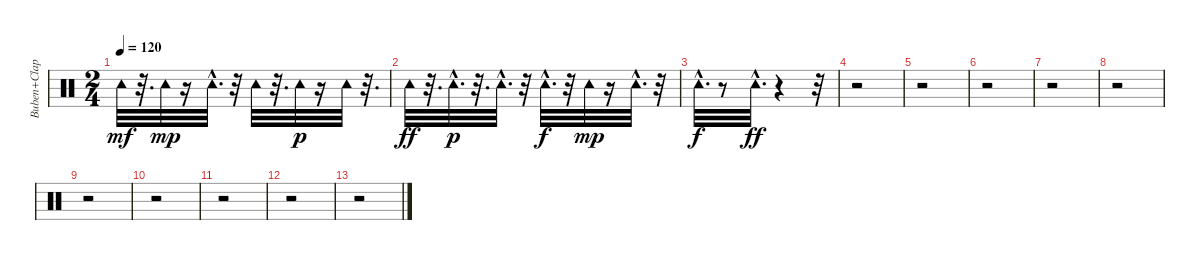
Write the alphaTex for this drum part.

\track ("Buben+Clap" "Buben+Clap") {instrument percussion}
\staff {score}
\articulation defaults
\ts (2 4)
\tempo 120
\clef neutral
\ks c "Tambourine (hit)".32{dy mf}
r.32{d} "Tambourine (hit)".32{dy mp} r.16 "Tambourine (hit)"{hac}.32{d} r.32 "Tambourine (hit)".32 r.32{d} "Tambourine (hit)".32{dy p} r.16 "Tambourine (hit)".32 r.32{d} |
"Tambourine (hit)".32{dy ff} r.32{d} "Tambourine (hit)"{hac}.32{d dy p} r.32{d} "Tambourine (hit)"{hac}.32{d} r.32 "Tambourine (hit)"{hac}.32{d dy f} r.32 "Tambourine (hit)".32{dy mp} r.16 "Tambourine (hit)"{hac}.32{d} r.32 |
"Tambourine (hit)"{hac}.32{d dy f} r.8 "Tambourine (hit)"{hac}.32{d dy ff} r.4 r.32 |
r.2 |
r.2 |
r.2 |
r.2 |
r.2 |
r.2 |
r.2 |
r.2 |
r.2 |
r.2
